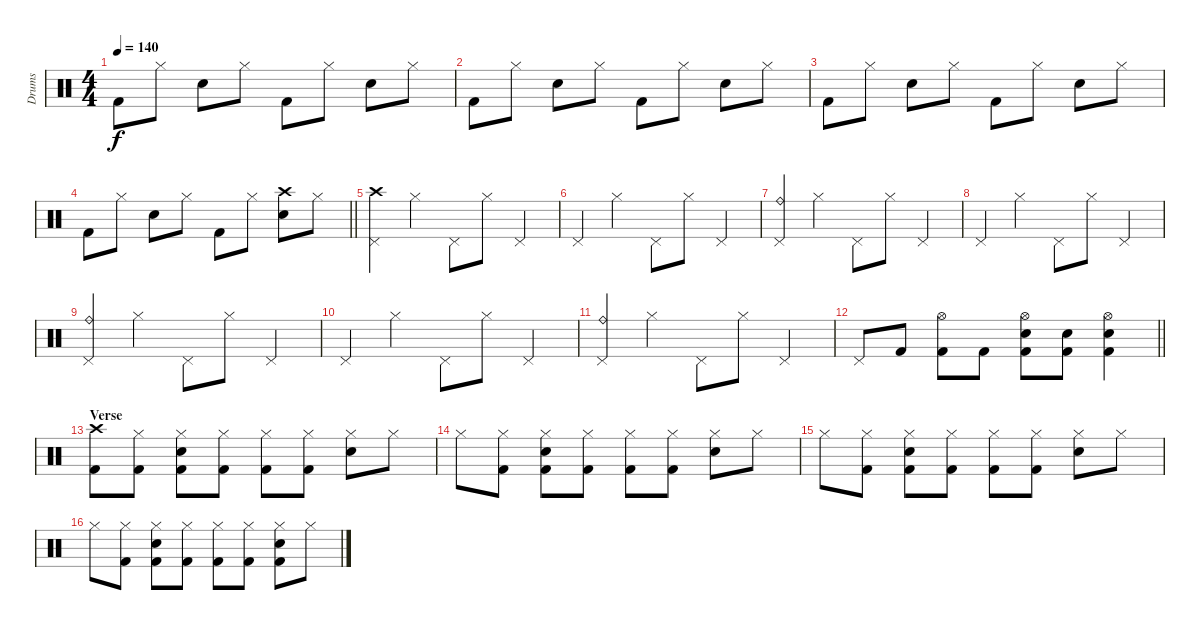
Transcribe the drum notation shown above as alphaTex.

\track ("Drums" "Drums") {instrument percussion}
\staff {score}
\articulation defaults
\ts (4 4)
\tempo 140
\clef neutral
\ks c "Kick (hit) 2".8{dy f} "Hi-Hat (closed)".8 "Snare (hit) 2".8 "Hi-Hat (closed)".8 "Kick (hit) 2".8 "Hi-Hat (closed)".8 "Snare (hit) 2".8 "Hi-Hat (closed)".8
|
"Kick (hit) 2".8 "Hi-Hat (closed)".8 "Snare (hit) 2".8 "Hi-Hat (closed)".8 "Kick (hit) 2".8 "Hi-Hat (closed)".8 "Snare (hit) 2".8 "Hi-Hat (closed)".8 |
"Kick (hit) 2".8 "Hi-Hat (closed)".8 "Snare (hit) 2".8 "Hi-Hat (closed)".8 "Kick (hit) 2".8 "Hi-Hat (closed)".8 "Snare (hit) 2".8 "Hi-Hat (closed)".8 |
\barLineRight lightlight "Kick (hit) 2".8 "Hi-Hat (closed)".8 "Snare (hit) 2".8 "Hi-Hat (closed)".8 "Kick (hit) 2".8 "Hi-Hat (closed)".8
("Snare (hit) 2" "Crash high (hit)").8 "Hi-Hat (closed)".8 |
("Crash high (hit)" "Pedal Hi-Hat (hit)").4 "Hi-Hat (closed)".4 "Pedal Hi-Hat (hit)".8 "Hi-Hat (closed)".8 "Pedal Hi-Hat (hit)".4 |
"Pedal Hi-Hat (hit)".4 "Hi-Hat (closed)".4 "Pedal Hi-Hat (hit)".8 "Hi-Hat (closed)".8 "Pedal Hi-Hat (hit)".4 |
("Pedal Hi-Hat (hit)" "Ride (bell)").4 "Hi-Hat (closed)".4 "Pedal Hi-Hat (hit)".8 "Hi-Hat (closed)".8 "Pedal Hi-Hat (hit)".4 |
"Pedal Hi-Hat (hit)".4 "Hi-Hat (closed)".4 "Pedal Hi-Hat (hit)".8 "Hi-Hat (closed)".8 "Pedal Hi-Hat (hit)".4 |
("Pedal Hi-Hat (hit)" "Ride (bell)").4 "Hi-Hat (closed)".4 "Pedal Hi-Hat (hit)".8 "Hi-Hat (closed)".8 "Pedal Hi-Hat (hit)".4 |
"Pedal Hi-Hat (hit)".4 "Hi-Hat (closed)".4 "Pedal Hi-Hat (hit)".8 "Hi-Hat (closed)".8 "Pedal Hi-Hat (hit)".4 |
("Pedal Hi-Hat (hit)" "Ride (bell)").4 "Hi-Hat (closed)".4 "Pedal Hi-Hat (hit)".8 "Hi-Hat (closed)".8 "Pedal Hi-Hat (hit)".4 |
\barLineRight lightlight "Pedal Hi-Hat (hit)".8 "Kick (hit) 2".8
("Kick (hit) 2" "Hi-Hat (open)").8 "Kick (hit) 2".8 ("Kick (hit) 2" "Snare (hit) 2" "Hi-Hat (open)").8 ("Kick (hit) 2" "Snare (hit) 2").8 ("Kick (hit) 2" "Snare (hit) 2" "Hi-Hat (open)").4 |
\section ("" "Verse")
("Crash high (hit)" "Kick (hit) 2").8 ("Hi-Hat (closed)" "Kick (hit) 2").8 ("Hi-Hat (closed)" "Kick (hit) 2" "Snare (hit) 2").8 ("Hi-Hat (closed)" "Kick (hit) 2").8 ("Hi-Hat (closed)" "Kick (hit) 2").8 ("Hi-Hat (closed)" "Kick (hit) 2").8 ("Hi-Hat (closed)" "Snare (hit) 2").8 "Hi-Hat (closed)".8 |
"Hi-Hat (closed)".8 ("Hi-Hat (closed)" "Kick (hit) 2").8 ("Hi-Hat (closed)" "Kick (hit) 2" "Snare (hit) 2").8 ("Hi-Hat (closed)" "Kick (hit) 2").8 ("Hi-Hat (closed)" "Kick (hit) 2").8 ("Hi-Hat (closed)" "Kick (hit) 2").8 ("Hi-Hat (closed)" "Snare (hit) 2").8 "Hi-Hat (closed)".8 |
"Hi-Hat (closed)".8 ("Hi-Hat (closed)" "Kick (hit) 2").8 ("Hi-Hat (closed)" "Kick (hit) 2" "Snare (hit) 2").8 ("Hi-Hat (closed)" "Kick (hit) 2").8 ("Hi-Hat (closed)" "Kick (hit) 2").8 ("Hi-Hat (closed)" "Kick (hit) 2").8 ("Hi-Hat (closed)" "Snare (hit) 2").8 "Hi-Hat (closed)".8 |
"Hi-Hat (closed)".8 ("Hi-Hat (closed)" "Kick (hit) 2").8 ("Hi-Hat (closed)" "Kick (hit) 2" "Snare (hit) 2").8 ("Hi-Hat (closed)" "Kick (hit) 2").8 ("Hi-Hat (closed)" "Kick (hit) 2").8 ("Hi-Hat (closed)" "Kick (hit) 2").8 ("Hi-Hat (closed)" "Snare (hit) 2" "Kick (hit) 2").8 "Hi-Hat (closed)".8
